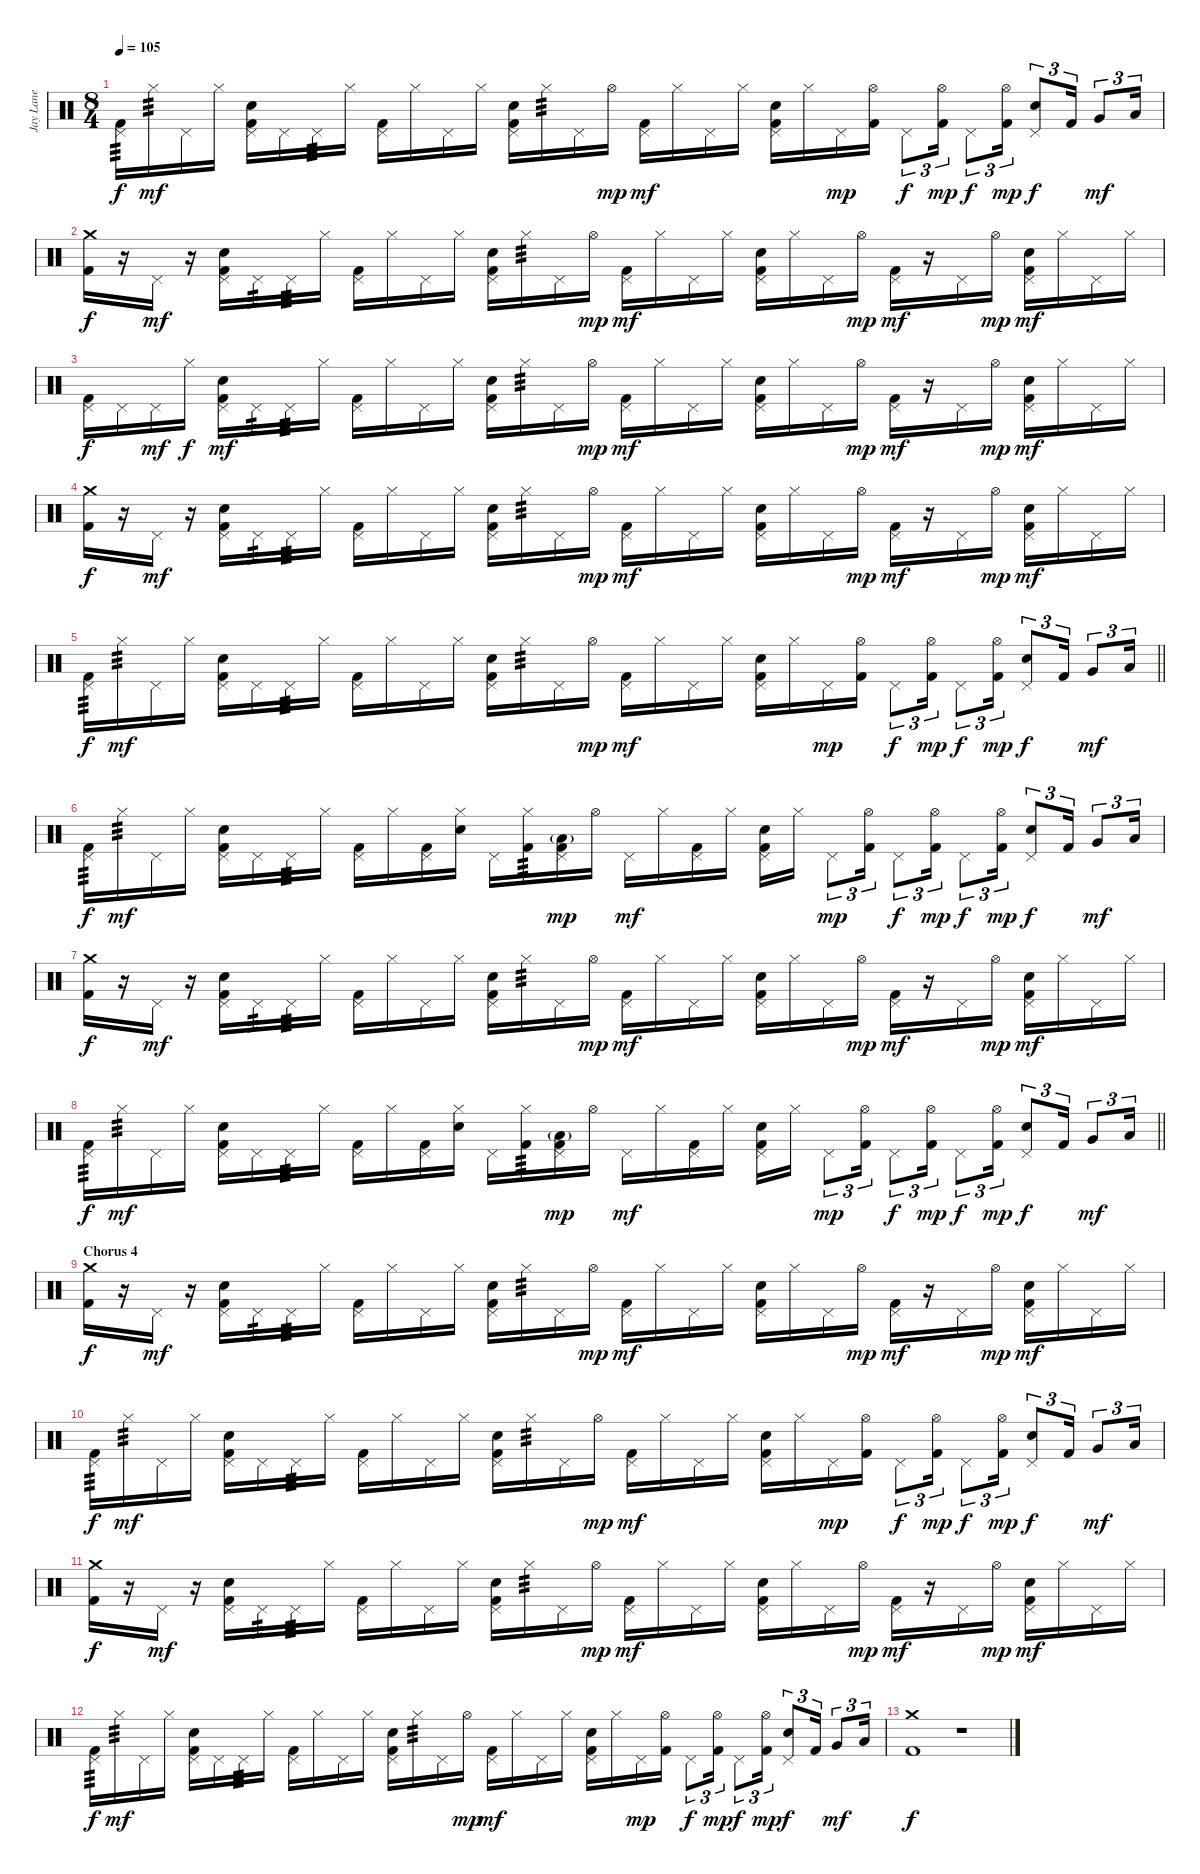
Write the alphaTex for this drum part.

\track ("Jay Lane" "Jay Lane") {instrument percussion}
\staff {score}
\articulation defaults
\ts (8 4)
\tempo 105
\clef neutral
\ks c
("Pedal Hi-Hat (hit)" "Kick (hit) 2").16{tp 3 dy f} "Hi-Hat (closed)".16{tp 3 dy mf} "Pedal Hi-Hat (hit)".16 "Hi-Hat (closed)".16 ("Pedal Hi-Hat (hit)" "Electric Snare (hit)" "Kick (hit) 2").16 "Pedal Hi-Hat (hit)".16 "Pedal Hi-Hat (hit)".16{tp 3} "Hi-Hat (closed)".16 ("Pedal Hi-Hat (hit)" "Kick (hit) 2").16 "Hi-Hat (closed)".16 "Pedal Hi-Hat (hit)".16 "Hi-Hat (closed)".16 ("Pedal Hi-Hat (hit)" "Electric Snare (hit)" "Kick (hit) 2").16 "Hi-Hat (closed)".16{tp 3} "Pedal Hi-Hat (hit)".16 "Hi-Hat (open)".16{dy mp} ("Pedal Hi-Hat (hit)" "Kick (hit) 2").16{dy mf} "Hi-Hat (closed)".16 "Pedal Hi-Hat (hit)".16 "Hi-Hat (closed)".16 ("Pedal Hi-Hat (hit)" "Electric Snare (hit)" "Kick (hit) 2").16 "Hi-Hat (closed)".16 "Pedal Hi-Hat (hit)".16{dy mp} ("Hi-Hat (open)" "Kick (hit) 2").16 "Pedal Hi-Hat (hit)".8{tu (3 2) dy f} ("Hi-Hat (open)" "Kick (hit) 2").16{tu (3 2) dy mp} "Pedal Hi-Hat (hit)".8{tu (3 2) dy f} ("Hi-Hat (open)" "Kick (hit) 2").16{tu (3 2) dy mp} ("Pedal Hi-Hat (hit)" "Electric Snare (hit)").8{tu (3 2) dy f} "Kick (hit) 2".16{tu (3 2)} "Very Low Tom (hit)".8{tu (3 2) dy mf} "Low Floor Tom (hit)".16{tu (3 2)} |
("Crash medium (hit)" "Kick (hit) 2").16{dy f} r.16 "Pedal Hi-Hat (hit)".16{dy mf} r.16 ("Pedal Hi-Hat (hit)" "Electric Snare (hit)" "Kick (hit) 2").16 "Pedal Hi-Hat (hit)".16{tp 3} "Pedal Hi-Hat (hit)".16{tp 3} "Hi-Hat (closed)".16 ("Pedal Hi-Hat (hit)" "Kick (hit) 2").16 "Hi-Hat (closed)".16 "Pedal Hi-Hat (hit)".16 "Hi-Hat (closed)".16 ("Pedal Hi-Hat (hit)" "Electric Snare (hit)" "Kick (hit) 2").16 "Hi-Hat (closed)".16{tp 3} "Pedal Hi-Hat (hit)".16 "Hi-Hat (open)".16{dy mp} ("Pedal Hi-Hat (hit)" "Kick (hit) 2").16{dy mf} "Hi-Hat (closed)".16 "Pedal Hi-Hat (hit)".16 "Hi-Hat (closed)".16 ("Pedal Hi-Hat (hit)" "Electric Snare (hit)" "Kick (hit) 2").16 "Hi-Hat (closed)".16 "Pedal Hi-Hat (hit)".16 "Hi-Hat (open)".16{dy mp} ("Pedal Hi-Hat (hit)" "Kick (hit) 2").16{dy mf} r.16 "Pedal Hi-Hat (hit)".16 "Hi-Hat (open)".16{dy mp} ("Pedal Hi-Hat (hit)" "Electric Snare (hit)" "Kick (hit) 2").16{dy mf} "Hi-Hat (closed)".16 "Pedal Hi-Hat (hit)".16 "Hi-Hat (closed)".16 |
("Pedal Hi-Hat (hit)" "Kick (hit) 2").16{dy f} "Pedal Hi-Hat (hit)".16 "Pedal Hi-Hat (hit)".16{dy mf} "Hi-Hat (closed)".16{dy f} ("Pedal Hi-Hat (hit)" "Electric Snare (hit)" "Kick (hit) 2").16{dy mf} "Pedal Hi-Hat (hit)".16{tp 3} "Pedal Hi-Hat (hit)".16{tp 3} "Hi-Hat (closed)".16 ("Pedal Hi-Hat (hit)" "Kick (hit) 2").16 "Hi-Hat (closed)".16 "Pedal Hi-Hat (hit)".16 "Hi-Hat (closed)".16 ("Pedal Hi-Hat (hit)" "Electric Snare (hit)" "Kick (hit) 2").16 "Hi-Hat (closed)".16{tp 3} "Pedal Hi-Hat (hit)".16 "Hi-Hat (open)".16{dy mp} ("Pedal Hi-Hat (hit)" "Kick (hit) 2").16{dy mf} "Hi-Hat (closed)".16 "Pedal Hi-Hat (hit)".16 "Hi-Hat (closed)".16 ("Pedal Hi-Hat (hit)" "Electric Snare (hit)" "Kick (hit) 2").16 "Hi-Hat (closed)".16 "Pedal Hi-Hat (hit)".16 "Hi-Hat (open)".16{dy mp} ("Pedal Hi-Hat (hit)" "Kick (hit) 2").16{dy mf} r.16 "Pedal Hi-Hat (hit)".16 "Hi-Hat (open)".16{dy mp} ("Pedal Hi-Hat (hit)" "Electric Snare (hit)" "Kick (hit) 2").16{dy mf} "Hi-Hat (closed)".16 "Pedal Hi-Hat (hit)".16 "Hi-Hat (closed)".16 |
("Crash medium (hit)" "Kick (hit) 2").16{dy f} r.16 "Pedal Hi-Hat (hit)".16{dy mf} r.16 ("Pedal Hi-Hat (hit)" "Electric Snare (hit)" "Kick (hit) 2").16 "Pedal Hi-Hat (hit)".16{tp 3} "Pedal Hi-Hat (hit)".16{tp 3} "Hi-Hat (closed)".16 ("Pedal Hi-Hat (hit)" "Kick (hit) 2").16 "Hi-Hat (closed)".16 "Pedal Hi-Hat (hit)".16 "Hi-Hat (closed)".16 ("Pedal Hi-Hat (hit)" "Electric Snare (hit)" "Kick (hit) 2").16 "Hi-Hat (closed)".16{tp 3} "Pedal Hi-Hat (hit)".16 "Hi-Hat (open)".16{dy mp} ("Pedal Hi-Hat (hit)" "Kick (hit) 2").16{dy mf} "Hi-Hat (closed)".16 "Pedal Hi-Hat (hit)".16 "Hi-Hat (closed)".16 ("Pedal Hi-Hat (hit)" "Electric Snare (hit)" "Kick (hit) 2").16 "Hi-Hat (closed)".16 "Pedal Hi-Hat (hit)".16 "Hi-Hat (open)".16{dy mp} ("Pedal Hi-Hat (hit)" "Kick (hit) 2").16{dy mf} r.16 "Pedal Hi-Hat (hit)".16 "Hi-Hat (open)".16{dy mp} ("Pedal Hi-Hat (hit)" "Electric Snare (hit)" "Kick (hit) 2").16{dy mf} "Hi-Hat (closed)".16 "Pedal Hi-Hat (hit)".16 "Hi-Hat (closed)".16 |
\barLineRight lightlight
("Pedal Hi-Hat (hit)" "Kick (hit) 2").16{tp 3 dy f} "Hi-Hat (closed)".16{tp 3 dy mf} "Pedal Hi-Hat (hit)".16 "Hi-Hat (closed)".16 ("Pedal Hi-Hat (hit)" "Electric Snare (hit)" "Kick (hit) 2").16 "Pedal Hi-Hat (hit)".16 "Pedal Hi-Hat (hit)".16{tp 3} "Hi-Hat (closed)".16 ("Pedal Hi-Hat (hit)" "Kick (hit) 2").16 "Hi-Hat (closed)".16 "Pedal Hi-Hat (hit)".16 "Hi-Hat (closed)".16 ("Pedal Hi-Hat (hit)" "Electric Snare (hit)" "Kick (hit) 2").16 "Hi-Hat (closed)".16{tp 3} "Pedal Hi-Hat (hit)".16 "Hi-Hat (open)".16{dy mp} ("Pedal Hi-Hat (hit)" "Kick (hit) 2").16{dy mf} "Hi-Hat (closed)".16 "Pedal Hi-Hat (hit)".16 "Hi-Hat (closed)".16 ("Pedal Hi-Hat (hit)" "Electric Snare (hit)" "Kick (hit) 2").16 "Hi-Hat (closed)".16 "Pedal Hi-Hat (hit)".16{dy mp} ("Hi-Hat (open)" "Kick (hit) 2").16 "Pedal Hi-Hat (hit)".8{tu (3 2) dy f} ("Hi-Hat (open)" "Kick (hit) 2").16{tu (3 2) dy mp} "Pedal Hi-Hat (hit)".8{tu (3 2) dy f} ("Hi-Hat (open)" "Kick (hit) 2").16{tu (3 2) dy mp} ("Pedal Hi-Hat (hit)" "Electric Snare (hit)").8{tu (3 2) dy f} "Kick (hit) 2".16{tu (3 2)} "Very Low Tom (hit)".8{tu (3 2) dy mf} "Low Floor Tom (hit)".16{tu (3 2)} |
\section ("" "")
("Pedal Hi-Hat (hit)" "Kick (hit) 2").16{tp 3 dy f} "Hi-Hat (closed)".16{tp 3 dy mf} "Pedal Hi-Hat (hit)".16 "Hi-Hat (closed)".16 ("Pedal Hi-Hat (hit)" "Electric Snare (hit)" "Kick (hit) 2").16 "Pedal Hi-Hat (hit)".16 "Pedal Hi-Hat (hit)".16{tp 3} "Hi-Hat (closed)".16 ("Pedal Hi-Hat (hit)" "Kick (hit) 2").16 "Hi-Hat (closed)".16 ("Pedal Hi-Hat (hit)" "Kick (hit) 2").16 ("Hi-Hat (closed)" "Electric Snare (hit)").16 "Pedal Hi-Hat (hit)".16 ("Hi-Hat (closed)" "Kick (hit) 2").16{tp 3} ("Pedal Hi-Hat (hit)" "Low Floor Tom (hit)"{g} "Kick (hit) 2").16{dy mp} "Hi-Hat (open)".16 "Pedal Hi-Hat (hit)".16{dy mf} "Hi-Hat (closed)".16 ("Pedal Hi-Hat (hit)" "Kick (hit) 2").16 "Hi-Hat (closed)".16 ("Pedal Hi-Hat (hit)" "Electric Snare (hit)" "Kick (hit) 2").16 "Hi-Hat (closed)".16 "Pedal Hi-Hat (hit)".8{tu (3 2) dy mp} ("Hi-Hat (open)" "Kick (hit) 2").16{tu (3 2)} "Pedal Hi-Hat (hit)".8{tu (3 2) dy f} ("Hi-Hat (open)" "Kick (hit) 2").16{tu (3 2) dy mp} "Pedal Hi-Hat (hit)".8{tu (3 2) dy f} ("Hi-Hat (open)" "Kick (hit) 2").16{tu (3 2) dy mp} ("Pedal Hi-Hat (hit)" "Electric Snare (hit)").8{tu (3 2) dy f} "Kick (hit) 2".16{tu (3 2)} "Very Low Tom (hit)".8{tu (3 2) dy mf} "Low Floor Tom (hit)".16{tu (3 2)} |
("Crash medium (hit)" "Kick (hit) 2").16{dy f} r.16 "Pedal Hi-Hat (hit)".16{dy mf} r.16 ("Pedal Hi-Hat (hit)" "Electric Snare (hit)" "Kick (hit) 2").16 "Pedal Hi-Hat (hit)".16{tp 3} "Pedal Hi-Hat (hit)".16{tp 3} "Hi-Hat (closed)".16 ("Pedal Hi-Hat (hit)" "Kick (hit) 2").16 "Hi-Hat (closed)".16 "Pedal Hi-Hat (hit)".16 "Hi-Hat (closed)".16 ("Pedal Hi-Hat (hit)" "Electric Snare (hit)" "Kick (hit) 2").16 "Hi-Hat (closed)".16{tp 3} "Pedal Hi-Hat (hit)".16 "Hi-Hat (open)".16{dy mp} ("Pedal Hi-Hat (hit)" "Kick (hit) 2").16{dy mf} "Hi-Hat (closed)".16 "Pedal Hi-Hat (hit)".16 "Hi-Hat (closed)".16 ("Pedal Hi-Hat (hit)" "Electric Snare (hit)" "Kick (hit) 2").16 "Hi-Hat (closed)".16 "Pedal Hi-Hat (hit)".16 "Hi-Hat (open)".16{dy mp} ("Pedal Hi-Hat (hit)" "Kick (hit) 2").16{dy mf} r.16 "Pedal Hi-Hat (hit)".16 "Hi-Hat (open)".16{dy mp} ("Pedal Hi-Hat (hit)" "Electric Snare (hit)" "Kick (hit) 2").16{dy mf} "Hi-Hat (closed)".16 "Pedal Hi-Hat (hit)".16 "Hi-Hat (closed)".16 |
\barLineRight lightlight
("Pedal Hi-Hat (hit)" "Kick (hit) 2").16{tp 3 dy f} "Hi-Hat (closed)".16{tp 3 dy mf} "Pedal Hi-Hat (hit)".16 "Hi-Hat (closed)".16 ("Pedal Hi-Hat (hit)" "Electric Snare (hit)" "Kick (hit) 2").16 "Pedal Hi-Hat (hit)".16 "Pedal Hi-Hat (hit)".16{tp 3} "Hi-Hat (closed)".16 ("Pedal Hi-Hat (hit)" "Kick (hit) 2").16 "Hi-Hat (closed)".16 ("Pedal Hi-Hat (hit)" "Kick (hit) 2").16 ("Hi-Hat (closed)" "Electric Snare (hit)").16 "Pedal Hi-Hat (hit)".16 ("Hi-Hat (closed)" "Kick (hit) 2").16{tp 3} ("Pedal Hi-Hat (hit)" "Low Floor Tom (hit)"{g} "Kick (hit) 2").16{dy mp} "Hi-Hat (open)".16 "Pedal Hi-Hat (hit)".16{dy mf} "Hi-Hat (closed)".16 ("Pedal Hi-Hat (hit)" "Kick (hit) 2").16 "Hi-Hat (closed)".16 ("Pedal Hi-Hat (hit)" "Electric Snare (hit)" "Kick (hit) 2").16 "Hi-Hat (closed)".16 "Pedal Hi-Hat (hit)".8{tu (3 2) dy mp} ("Hi-Hat (open)" "Kick (hit) 2").16{tu (3 2)} "Pedal Hi-Hat (hit)".8{tu (3 2) dy f} ("Hi-Hat (open)" "Kick (hit) 2").16{tu (3 2) dy mp} "Pedal Hi-Hat (hit)".8{tu (3 2) dy f} ("Hi-Hat (open)" "Kick (hit) 2").16{tu (3 2) dy mp} ("Pedal Hi-Hat (hit)" "Electric Snare (hit)").8{tu (3 2) dy f} "Kick (hit) 2".16{tu (3 2)} "Very Low Tom (hit)".8{tu (3 2) dy mf} "Low Floor Tom (hit)".16{tu (3 2)} |
\section ("" "Chorus 4")
("Crash medium (hit)" "Kick (hit) 2").16{dy f} r.16 "Pedal Hi-Hat (hit)".16{dy mf} r.16 ("Pedal Hi-Hat (hit)" "Electric Snare (hit)" "Kick (hit) 2").16 "Pedal Hi-Hat (hit)".16{tp 3} "Pedal Hi-Hat (hit)".16{tp 3} "Hi-Hat (closed)".16 ("Pedal Hi-Hat (hit)" "Kick (hit) 2").16 "Hi-Hat (closed)".16 "Pedal Hi-Hat (hit)".16 "Hi-Hat (closed)".16 ("Pedal Hi-Hat (hit)" "Electric Snare (hit)" "Kick (hit) 2").16 "Hi-Hat (closed)".16{tp 3} "Pedal Hi-Hat (hit)".16 "Hi-Hat (open)".16{dy mp} ("Pedal Hi-Hat (hit)" "Kick (hit) 2").16{dy mf} "Hi-Hat (closed)".16 "Pedal Hi-Hat (hit)".16 "Hi-Hat (closed)".16 ("Pedal Hi-Hat (hit)" "Electric Snare (hit)" "Kick (hit) 2").16 "Hi-Hat (closed)".16 "Pedal Hi-Hat (hit)".16 "Hi-Hat (open)".16{dy mp} ("Pedal Hi-Hat (hit)" "Kick (hit) 2").16{dy mf} r.16 "Pedal Hi-Hat (hit)".16 "Hi-Hat (open)".16{dy mp} ("Pedal Hi-Hat (hit)" "Electric Snare (hit)" "Kick (hit) 2").16{dy mf} "Hi-Hat (closed)".16 "Pedal Hi-Hat (hit)".16 "Hi-Hat (closed)".16 |
("Pedal Hi-Hat (hit)" "Kick (hit) 2").16{tp 3 dy f} "Hi-Hat (closed)".16{tp 3 dy mf} "Pedal Hi-Hat (hit)".16 "Hi-Hat (closed)".16 ("Pedal Hi-Hat (hit)" "Electric Snare (hit)" "Kick (hit) 2").16 "Pedal Hi-Hat (hit)".16 "Pedal Hi-Hat (hit)".16{tp 3} "Hi-Hat (closed)".16 ("Pedal Hi-Hat (hit)" "Kick (hit) 2").16 "Hi-Hat (closed)".16 "Pedal Hi-Hat (hit)".16 "Hi-Hat (closed)".16 ("Pedal Hi-Hat (hit)" "Electric Snare (hit)" "Kick (hit) 2").16 "Hi-Hat (closed)".16{tp 3} "Pedal Hi-Hat (hit)".16 "Hi-Hat (open)".16{dy mp} ("Pedal Hi-Hat (hit)" "Kick (hit) 2").16{dy mf} "Hi-Hat (closed)".16 "Pedal Hi-Hat (hit)".16 "Hi-Hat (closed)".16 ("Pedal Hi-Hat (hit)" "Electric Snare (hit)" "Kick (hit) 2").16 "Hi-Hat (closed)".16 "Pedal Hi-Hat (hit)".16{dy mp} ("Hi-Hat (open)" "Kick (hit) 2").16 "Pedal Hi-Hat (hit)".8{tu (3 2) dy f} ("Hi-Hat (open)" "Kick (hit) 2").16{tu (3 2) dy mp} "Pedal Hi-Hat (hit)".8{tu (3 2) dy f} ("Hi-Hat (open)" "Kick (hit) 2").16{tu (3 2) dy mp} ("Pedal Hi-Hat (hit)" "Electric Snare (hit)").8{tu (3 2) dy f} "Kick (hit) 2".16{tu (3 2)} "Very Low Tom (hit)".8{tu (3 2) dy mf} "Low Floor Tom (hit)".16{tu (3 2)} |
("Crash medium (hit)" "Kick (hit) 2").16{dy f} r.16 "Pedal Hi-Hat (hit)".16{dy mf} r.16 ("Pedal Hi-Hat (hit)" "Electric Snare (hit)" "Kick (hit) 2").16 "Pedal Hi-Hat (hit)".16{tp 3} "Pedal Hi-Hat (hit)".16{tp 3} "Hi-Hat (closed)".16 ("Pedal Hi-Hat (hit)" "Kick (hit) 2").16 "Hi-Hat (closed)".16 "Pedal Hi-Hat (hit)".16 "Hi-Hat (closed)".16 ("Pedal Hi-Hat (hit)" "Electric Snare (hit)" "Kick (hit) 2").16 "Hi-Hat (closed)".16{tp 3} "Pedal Hi-Hat (hit)".16 "Hi-Hat (open)".16{dy mp} ("Pedal Hi-Hat (hit)" "Kick (hit) 2").16{dy mf} "Hi-Hat (closed)".16 "Pedal Hi-Hat (hit)".16 "Hi-Hat (closed)".16 ("Pedal Hi-Hat (hit)" "Electric Snare (hit)" "Kick (hit) 2").16 "Hi-Hat (closed)".16 "Pedal Hi-Hat (hit)".16 "Hi-Hat (open)".16{dy mp} ("Pedal Hi-Hat (hit)" "Kick (hit) 2").16{dy mf} r.16 "Pedal Hi-Hat (hit)".16 "Hi-Hat (open)".16{dy mp} ("Pedal Hi-Hat (hit)" "Electric Snare (hit)" "Kick (hit) 2").16{dy mf} "Hi-Hat (closed)".16 "Pedal Hi-Hat (hit)".16 "Hi-Hat (closed)".16 |
("Pedal Hi-Hat (hit)" "Kick (hit) 2").16{tp 3 dy f} "Hi-Hat (closed)".16{tp 3 dy mf} "Pedal Hi-Hat (hit)".16 "Hi-Hat (closed)".16 ("Pedal Hi-Hat (hit)" "Electric Snare (hit)" "Kick (hit) 2").16 "Pedal Hi-Hat (hit)".16 "Pedal Hi-Hat (hit)".16{tp 3} "Hi-Hat (closed)".16 ("Pedal Hi-Hat (hit)" "Kick (hit) 2").16 "Hi-Hat (closed)".16 "Pedal Hi-Hat (hit)".16 "Hi-Hat (closed)".16 ("Pedal Hi-Hat (hit)" "Electric Snare (hit)" "Kick (hit) 2").16 "Hi-Hat (closed)".16{tp 3} "Pedal Hi-Hat (hit)".16 "Hi-Hat (open)".16{dy mp} ("Pedal Hi-Hat (hit)" "Kick (hit) 2").16{dy mf} "Hi-Hat (closed)".16 "Pedal Hi-Hat (hit)".16 "Hi-Hat (closed)".16 ("Pedal Hi-Hat (hit)" "Electric Snare (hit)" "Kick (hit) 2").16 "Hi-Hat (closed)".16 "Pedal Hi-Hat (hit)".16{dy mp} ("Hi-Hat (open)" "Kick (hit) 2").16 "Pedal Hi-Hat (hit)".8{tu (3 2) dy f} ("Hi-Hat (open)" "Kick (hit) 2").16{tu (3 2) dy mp} "Pedal Hi-Hat (hit)".8{tu (3 2) dy f} ("Hi-Hat (open)" "Kick (hit) 2").16{tu (3 2) dy mp} ("Pedal Hi-Hat (hit)" "Electric Snare (hit)").8{tu (3 2) dy f} "Kick (hit) 2".16{tu (3 2)} "Very Low Tom (hit)".8{tu (3 2) dy mf} "Low Floor Tom (hit)".16{tu (3 2)} |
("Crash medium (hit)" "Kick (hit) 2").1{dy f} r.1
